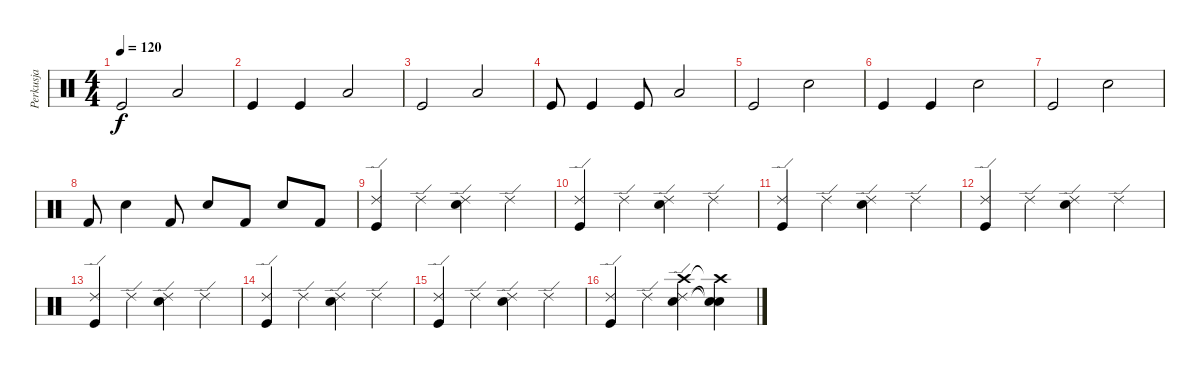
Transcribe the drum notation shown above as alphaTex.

\track ("Perkusja" "Perkusja") {instrument percussion}
\staff {score}
\articulation defaults
\ts (4 4)
\tempo 120
\clef neutral
\ks c "Kick (hit)".2{dy f} "Low Tom (hit)".2
|
"Kick (hit)".4 "Kick (hit)".4 "Low Tom (hit)".2 |
"Kick (hit)".2 "Low Tom (hit)".2 |
"Kick (hit)".8 "Kick (hit)".4 "Kick (hit)".8 "Low Tom (hit)".2 |
"Kick (hit)".2 "Snare (hit) 2".2 |
"Kick (hit)".4 "Kick (hit)".4 "Snare (hit) 2".2 |
"Kick (hit)".2 "Snare (hit) 2".2 |
"Kick (hit) 2".8 "Snare (hit) 2".4 "Kick (hit) 2".8 "Electric Snare (hit)".8 "Kick (hit) 2".8 "Electric Snare (hit)".8 "Kick (hit) 2".8 |
("Ride (edge) 2" "Kick (hit)").4 "Ride (edge) 2".4 ("Ride (edge) 2" "Snare (hit) 2").4 "Ride (edge) 2".4 |
("Ride (edge) 2" "Kick (hit)").4 "Ride (edge) 2".4 ("Ride (edge) 2" "Snare (hit) 2").4 "Ride (edge) 2".4 |
("Ride (edge) 2" "Kick (hit)").4 "Ride (edge) 2".4 ("Ride (edge) 2" "Snare (hit) 2").4 "Ride (edge) 2".4 |
("Ride (edge) 2" "Kick (hit)").4 "Ride (edge) 2".4 ("Ride (edge) 2" "Snare (hit) 2").4 "Ride (edge) 2".4 |
("Ride (edge) 2" "Kick (hit)").4 "Ride (edge) 2".4 ("Ride (edge) 2" "Snare (hit) 2").4 "Ride (edge) 2".4 |
("Ride (edge) 2" "Kick (hit)").4 "Ride (edge) 2".4 ("Ride (edge) 2" "Snare (hit) 2").4 "Ride (edge) 2".4 |
("Ride (edge) 2" "Kick (hit)").4 "Ride (edge) 2".4 ("Ride (edge) 2" "Snare (hit) 2").4 "Ride (edge) 2".4 |
("Ride (edge) 2" "Kick (hit)").4 "Ride (edge) 2".4 ("Ride (edge) 2" "Crash high (hit)" "Snare (hit) 2").4 ("Snare (hit)"{t} "Crash high (hit)"{t} "Snare (hit)"{t}).4
